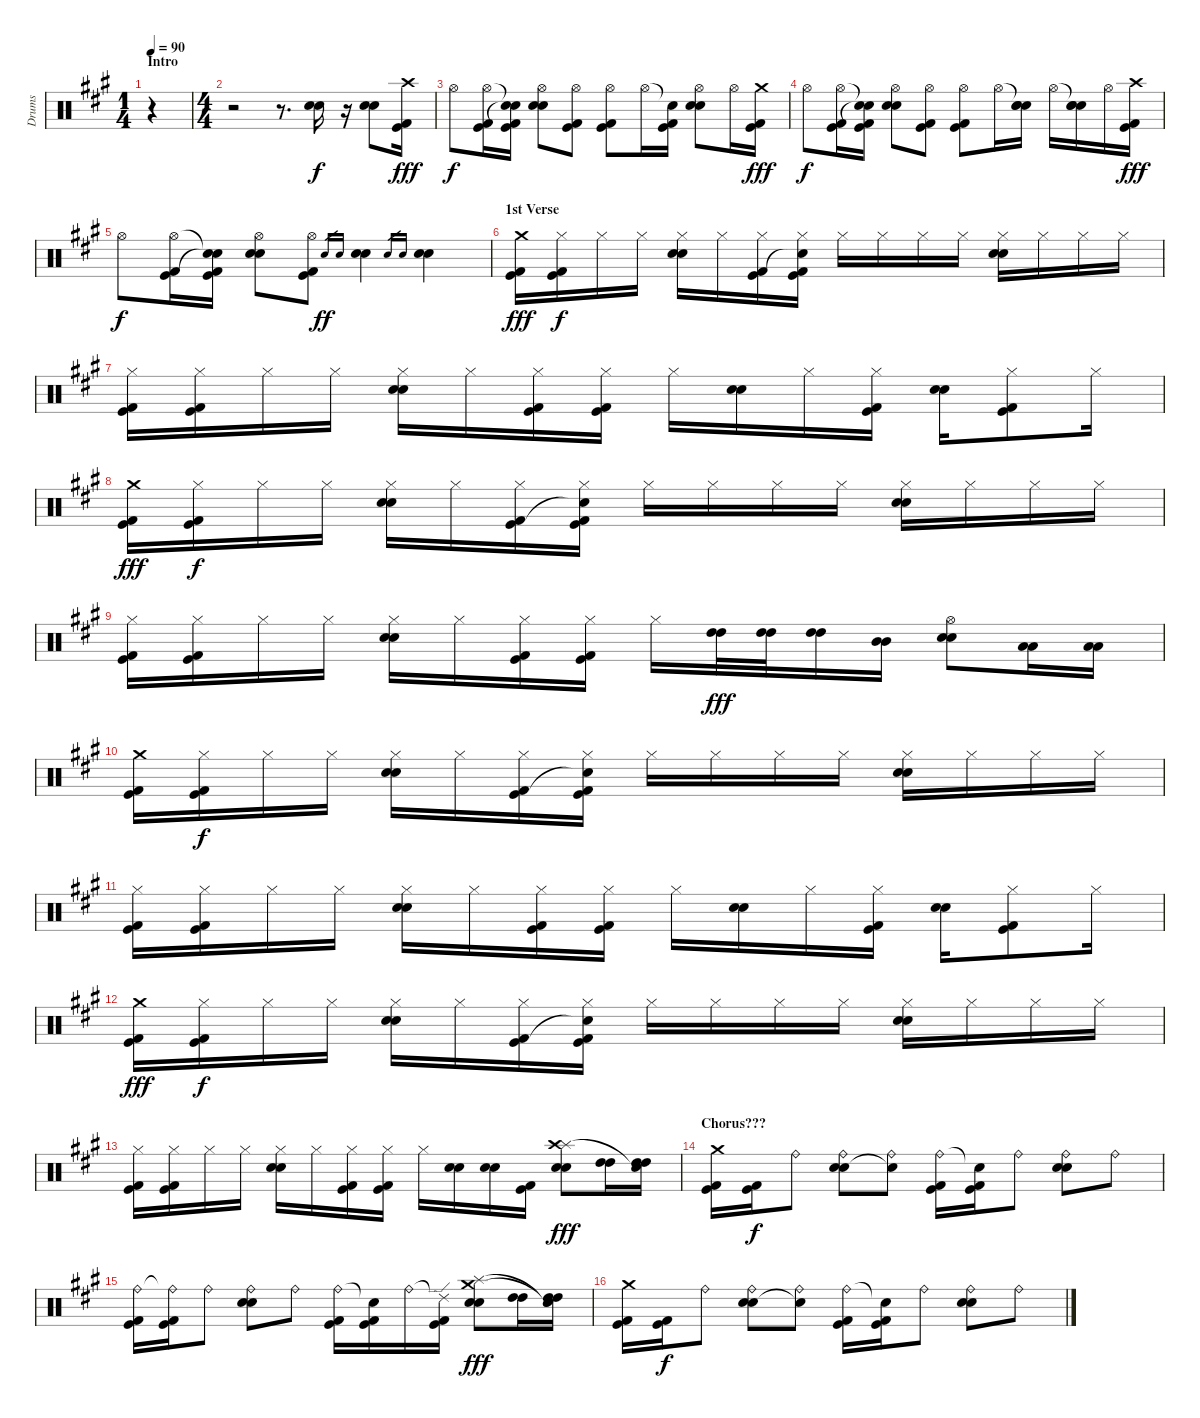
\track ("Drums" "Drums") {instrument percussion}
\staff {score}
\articulation defaults
\ts (1 4)
\section ("" "Intro")
\tempo 90
\clef neutral
\ks a
r.4{dy f} |
\ts (4 4)
r.2 r.8{d} ("Electric Snare (hit)" "Snare (hit) 2").16 r.16 ("Electric Snare (hit)" "Snare (hit) 2").8 ("Crash high (hit)" "Kick (hit)" "Kick (hit) 2").16{dy fff} |
"Hi-Hat (open)".8{dy f} ("Hi-Hat (open)" "Kick (hit)" "Kick (hit) 2").16 ("Snare (hit)"{t} "Snare (hit)"{t} "Kick (hit)" "Kick (hit) 2").16 ("Hi-Hat (open)" "Electric Snare (hit)" "Snare (hit) 2").8 ("Hi-Hat (open)" "Kick (hit)" "Kick (hit) 2").8 ("Hi-Hat (open)" "Kick (hit)" "Kick (hit) 2").8 "Hi-Hat (open)".16 ("Snare (hit)"{t} "Kick (hit)" "Kick (hit) 2").16 ("Hi-Hat (open)" "Electric Snare (hit)" "Snare (hit) 2").8 "Hi-Hat (open)".16 ("Crash medium (hit)" "Kick (hit)" "Kick (hit) 2").16{dy fff} |
"Hi-Hat (open)".8{dy f} ("Hi-Hat (open)" "Kick (hit)" "Kick (hit) 2").16 ("Snare (hit)"{t} "Snare (hit)"{t} "Kick (hit)" "Kick (hit) 2").16 ("Hi-Hat (open)" "Electric Snare (hit)" "Snare (hit) 2").8 ("Hi-Hat (open)" "Kick (hit)" "Kick (hit) 2").8 ("Hi-Hat (open)" "Kick (hit)" "Kick (hit) 2").8 "Hi-Hat (open)".16 ("Snare (hit)"{t} "Electric Snare (hit)" "Snare (hit) 2").16 "Hi-Hat (open)".16 ("Snare (hit)"{t} "Electric Snare (hit)" "Snare (hit) 2").16 "Hi-Hat (open)".16 ("Crash high (hit)" "Kick (hit)" "Kick (hit) 2").16{dy fff} |
"Hi-Hat (open)".8{dy f} ("Hi-Hat (open)" "Kick (hit)" "Kick (hit) 2").16 ("Snare (hit)"{t} "Snare (hit)"{t} "Kick (hit)" "Kick (hit) 2").16 ("Hi-Hat (open)" "Electric Snare (hit)" "Snare (hit) 2").8 ("Hi-Hat (open)" "Kick (hit)" "Kick (hit) 2").8 "Electric Snare (hit)".16{gr dy ff} "Snare (hit) 2".16{gr} ("Electric Snare (hit)" "Snare (hit) 2").4 "Electric Snare (hit)".16{gr} "Snare (hit) 2".16{gr} ("Electric Snare (hit)" "Snare (hit) 2").4 |
\section ("" "1st Verse")
("Crash medium (hit)" "Kick (hit)" "Kick (hit) 2").16{dy fff} ("Hi-Hat (closed)" "Kick (hit)" "Kick (hit) 2").16{dy f} "Hi-Hat (closed)".16 "Hi-Hat (closed)".16 ("Hi-Hat (closed)" "Electric Snare (hit)" "Snare (hit) 2").16 "Hi-Hat (closed)".16 ("Hi-Hat (closed)" "Kick (hit)" "Kick (hit) 2").16 ("Hi-Hat (closed)" "Snare (hit)"{t} "Kick (hit)" "Kick (hit) 2").16 "Hi-Hat (closed)".16 "Hi-Hat (closed)".16 "Hi-Hat (closed)".16 "Hi-Hat (closed)".16 ("Hi-Hat (closed)" "Electric Snare (hit)" "Snare (hit) 2").16 "Hi-Hat (closed)".16 "Hi-Hat (closed)".16 "Hi-Hat (closed)".16 |
("Hi-Hat (closed)" "Kick (hit)" "Kick (hit) 2").16 ("Hi-Hat (closed)" "Kick (hit)" "Kick (hit) 2").16 "Hi-Hat (closed)".16 "Hi-Hat (closed)".16 ("Hi-Hat (closed)" "Electric Snare (hit)" "Snare (hit) 2").16 "Hi-Hat (closed)".16 ("Hi-Hat (closed)" "Kick (hit)" "Kick (hit) 2").16 ("Hi-Hat (closed)" "Kick (hit)" "Kick (hit) 2").16 "Hi-Hat (closed)".16 ("Electric Snare (hit)" "Snare (hit) 2").16 "Hi-Hat (closed)".16 ("Hi-Hat (closed)" "Kick (hit)" "Kick (hit) 2").16 ("Electric Snare (hit)" "Snare (hit) 2").16 ("Hi-Hat (closed)" "Kick (hit)" "Kick (hit) 2").8 "Hi-Hat (closed)".16 |
("Crash medium (hit)" "Kick (hit)" "Kick (hit) 2").16{dy fff} ("Hi-Hat (closed)" "Kick (hit)" "Kick (hit) 2").16{dy f} "Hi-Hat (closed)".16 "Hi-Hat (closed)".16 ("Hi-Hat (closed)" "Electric Snare (hit)" "Snare (hit) 2").16 "Hi-Hat (closed)".16 ("Hi-Hat (closed)" "Kick (hit)" "Kick (hit) 2").16 ("Hi-Hat (closed)" "Snare (hit)"{t} "Kick (hit)" "Kick (hit) 2").16 "Hi-Hat (closed)".16 "Hi-Hat (closed)".16 "Hi-Hat (closed)".16 "Hi-Hat (closed)".16 ("Hi-Hat (closed)" "Electric Snare (hit)" "Snare (hit) 2").16 "Hi-Hat (closed)".16 "Hi-Hat (closed)".16 "Hi-Hat (closed)".16 |
("Hi-Hat (closed)" "Kick (hit)" "Kick (hit) 2").16 ("Hi-Hat (closed)" "Kick (hit)" "Kick (hit) 2").16 "Hi-Hat (closed)".16 "Hi-Hat (closed)".16 ("Hi-Hat (closed)" "Electric Snare (hit)" "Snare (hit) 2").16 "Hi-Hat (closed)".16 ("Hi-Hat (closed)" "Kick (hit)" "Kick (hit) 2").16 ("Hi-Hat (closed)" "Kick (hit)" "Kick (hit) 2").16 "Hi-Hat (closed)".16 ("High Tom (hit)" "High Tom (hit)").32{dy fff} ("High Tom (hit)" "High Tom (hit)").32 ("High Tom (hit)" "High Tom (hit)").16 ("Mid Tom (hit)" "Mid Tom (hit)").16 ("Hi-Hat (open)" "Electric Snare (hit)" "Snare (hit) 2").8 ("Low Tom (hit)" "Low Tom (hit)").16 ("Low Tom (hit)" "Low Tom (hit)").16 |
("Crash medium (hit)" "Kick (hit)" "Kick (hit) 2").16 ("Hi-Hat (closed)" "Kick (hit)" "Kick (hit) 2").16{dy f} "Hi-Hat (closed)".16 "Hi-Hat (closed)".16 ("Hi-Hat (closed)" "Electric Snare (hit)" "Snare (hit) 2").16 "Hi-Hat (closed)".16 ("Hi-Hat (closed)" "Kick (hit)" "Kick (hit) 2").16 ("Hi-Hat (closed)" "Snare (hit)"{t} "Kick (hit)" "Kick (hit) 2").16 "Hi-Hat (closed)".16 "Hi-Hat (closed)".16 "Hi-Hat (closed)".16 "Hi-Hat (closed)".16 ("Hi-Hat (closed)" "Electric Snare (hit)" "Snare (hit) 2").16 "Hi-Hat (closed)".16 "Hi-Hat (closed)".16 "Hi-Hat (closed)".16 |
("Hi-Hat (closed)" "Kick (hit)" "Kick (hit) 2").16 ("Hi-Hat (closed)" "Kick (hit)" "Kick (hit) 2").16 "Hi-Hat (closed)".16 "Hi-Hat (closed)".16 ("Hi-Hat (closed)" "Electric Snare (hit)" "Snare (hit) 2").16 "Hi-Hat (closed)".16 ("Hi-Hat (closed)" "Kick (hit)" "Kick (hit) 2").16 ("Hi-Hat (closed)" "Kick (hit)" "Kick (hit) 2").16 "Hi-Hat (closed)".16 ("Electric Snare (hit)" "Snare (hit) 2").16 "Hi-Hat (closed)".16 ("Hi-Hat (closed)" "Kick (hit)" "Kick (hit) 2").16 ("Electric Snare (hit)" "Snare (hit) 2").16 ("Hi-Hat (closed)" "Kick (hit)" "Kick (hit) 2").8 "Hi-Hat (closed)".16 |
("Crash medium (hit)" "Kick (hit)" "Kick (hit) 2").16{dy fff} ("Hi-Hat (closed)" "Kick (hit)" "Kick (hit) 2").16{dy f} "Hi-Hat (closed)".16 "Hi-Hat (closed)".16 ("Hi-Hat (closed)" "Electric Snare (hit)" "Snare (hit) 2").16 "Hi-Hat (closed)".16 ("Hi-Hat (closed)" "Kick (hit)" "Kick (hit) 2").16 ("Hi-Hat (closed)" "Snare (hit)"{t} "Kick (hit)" "Kick (hit) 2").16 "Hi-Hat (closed)".16 "Hi-Hat (closed)".16 "Hi-Hat (closed)".16 "Hi-Hat (closed)".16 ("Hi-Hat (closed)" "Electric Snare (hit)" "Snare (hit) 2").16 "Hi-Hat (closed)".16 "Hi-Hat (closed)".16 "Hi-Hat (closed)".16 |
("Hi-Hat (closed)" "Kick (hit)" "Kick (hit) 2").16 ("Hi-Hat (closed)" "Kick (hit)" "Kick (hit) 2").16 "Hi-Hat (closed)".16 "Hi-Hat (closed)".16 ("Hi-Hat (closed)" "Electric Snare (hit)" "Snare (hit) 2").16 "Hi-Hat (closed)".16 ("Hi-Hat (closed)" "Kick (hit)" "Kick (hit) 2").16 ("Hi-Hat (closed)" "Kick (hit)" "Kick (hit) 2").16 "Hi-Hat (closed)".16 ("Electric Snare (hit)" "Snare (hit) 2").16 ("Electric Snare (hit)" "Snare (hit) 2").16 ("Kick (hit)" "Kick (hit) 2").16 ("Electric Snare (hit)" "Snare (hit) 2" "Splash (hit)" "Crash high (hit)").8{dy fff} ("High Tom (hit)" "High Tom (hit)").16 ("High Tom (hit)" "High Tom (hit)" "Snare (hit)"{t}).16 |
\section ("" "Chorus???")
("Crash medium (hit)" "Kick (hit)" "Kick (hit) 2").16 ("Kick (hit)" "Kick (hit) 2").16{dy f} "Ride (bell)".8 ("Ride (bell)" "Electric Snare (hit)" "Snare (hit) 2").8 ("Ride (bell)" "Snare (hit)"{t}).8 ("Ride (bell)" "Kick (hit)" "Kick (hit) 2").16 ("Snare (hit)"{t} "Kick (hit)" "Kick (hit) 2").16 "Ride (bell)".8 ("Ride (bell)" "Electric Snare (hit)" "Snare (hit) 2").8 "Ride (bell)".8 |
("Ride (bell)" "Kick (hit)" "Kick (hit) 2").16 ("Ride (bell)"{t} "Kick (hit)" "Kick (hit) 2").16 "Ride (bell)".8 ("Ride (bell)" "Electric Snare (hit)" "Snare (hit) 2").8 "Ride (bell)".8 ("Ride (bell)" "Kick (hit)" "Kick (hit) 2").16 ("Snare (hit)"{t} "Kick (hit)" "Kick (hit) 2").16 "Ride (bell)".16 ("Ride (edge) 2"{t} "Kick (hit)" "Kick (hit) 2").16 ("Electric Snare (hit)" "Snare (hit) 2" "Crash medium (hit)" "Splash (hit)").8{dy fff} ("High Tom (hit)" "High Tom (hit)").16 ("High Tom (hit)" "High Tom (hit)" "Snare (hit)"{t} "Snare (hit)"{t}).16 |
("Crash medium (hit)" "Kick (hit)" "Kick (hit) 2").16 ("Kick (hit)" "Kick (hit) 2").16{dy f} "Ride (bell)".8 ("Ride (bell)" "Electric Snare (hit)" "Snare (hit) 2").8 ("Ride (bell)" "Snare (hit)"{t}).8 ("Ride (bell)" "Kick (hit)" "Kick (hit) 2").16 ("Snare (hit)"{t} "Kick (hit)" "Kick (hit) 2").16 "Ride (bell)".8 ("Ride (bell)" "Electric Snare (hit)" "Snare (hit) 2").8 "Ride (bell)".8
